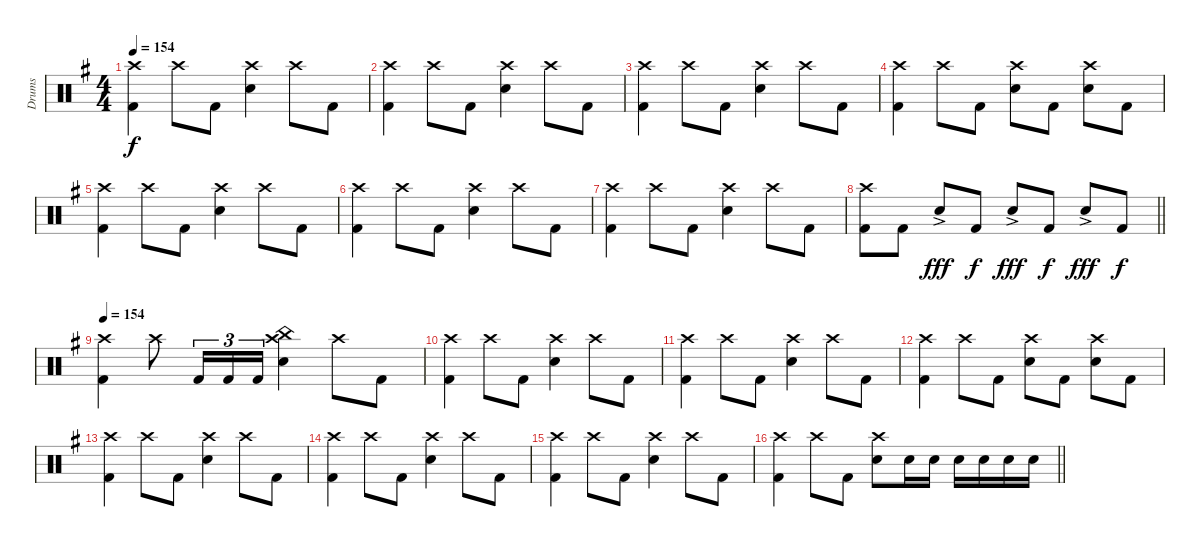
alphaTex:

\track ("Drums" "Drums") {instrument percussion}
\staff {score}
\articulation defaults
\ts (4 4)
\tempo 154
\clef neutral
\ks eminor
("Crash high (hit)" "Kick (hit) 2").4{dy f} "Crash high (hit)".8 "Kick (hit) 2".8 ("Crash high (hit)" "Snare (hit) 2").4 "Crash high (hit)".8 "Kick (hit) 2".8 |
("Crash high (hit)" "Kick (hit) 2").4 "Crash high (hit)".8 "Kick (hit) 2".8 ("Crash high (hit)" "Snare (hit) 2").4 "Crash high (hit)".8 "Kick (hit) 2".8 |
("Crash high (hit)" "Kick (hit) 2").4 "Crash high (hit)".8 "Kick (hit) 2".8 ("Crash high (hit)" "Snare (hit) 2").4 "Crash high (hit)".8 "Kick (hit) 2".8 |
("Crash high (hit)" "Kick (hit) 2").4 "Crash high (hit)".8 "Kick (hit) 2".8 ("Crash high (hit)" "Snare (hit) 2").8 "Kick (hit) 2".8 ("Crash high (hit)" "Snare (hit) 2").8 "Kick (hit) 2".8 |
("Crash high (hit)" "Kick (hit) 2").4 "Crash high (hit)".8 "Kick (hit) 2".8 ("Crash high (hit)" "Snare (hit) 2").4 "Crash high (hit)".8 "Kick (hit) 2".8 |
("Crash high (hit)" "Kick (hit) 2").4 "Crash high (hit)".8 "Kick (hit) 2".8 ("Crash high (hit)" "Snare (hit) 2").4 "Crash high (hit)".8 "Kick (hit) 2".8 |
("Crash high (hit)" "Kick (hit) 2").4 "Crash high (hit)".8 "Kick (hit) 2".8 ("Crash high (hit)" "Snare (hit) 2").4 "Crash high (hit)".8 "Kick (hit) 2".8 |
\barLineRight lightlight
("Crash high (hit)" "Kick (hit) 2").8 "Kick (hit) 2".8 "Snare (hit) 2"{ac}.8{dy fff} "Kick (hit) 2".8{dy f} "Snare (hit) 2"{ac}.8{dy fff} "Kick (hit) 2".8{dy f} "Snare (hit) 2"{ac}.8{dy fff} "Kick (hit) 2".8{dy f} |
\tempo 154
("Crash high (hit)" "Kick (hit) 2").4 "Crash high (hit)".8 "Kick (hit) 2".16{tu (3 2)} "Kick (hit) 2".16{tu (3 2)} "Kick (hit) 2".16{tu (3 2)} ("China (hit)" "Crash high (hit)" "Snare (hit) 2").4 "Crash high (hit)".8 "Kick (hit) 2".8 |
("Crash high (hit)" "Kick (hit) 2").4 "Crash high (hit)".8 "Kick (hit) 2".8 ("Crash high (hit)" "Snare (hit) 2").4 "Crash high (hit)".8 "Kick (hit) 2".8 |
("Crash high (hit)" "Kick (hit) 2").4 "Crash high (hit)".8 "Kick (hit) 2".8 ("Crash high (hit)" "Snare (hit) 2").4 "Crash high (hit)".8 "Kick (hit) 2".8 |
("Crash high (hit)" "Kick (hit) 2").4 "Crash high (hit)".8 "Kick (hit) 2".8 ("Crash high (hit)" "Snare (hit) 2").8 "Kick (hit) 2".8 ("Crash high (hit)" "Snare (hit) 2").8 "Kick (hit) 2".8 |
("Crash high (hit)" "Kick (hit) 2").4 "Crash high (hit)".8 "Kick (hit) 2".8 ("Crash high (hit)" "Snare (hit) 2").4 "Crash high (hit)".8 "Kick (hit) 2".8 |
("Crash high (hit)" "Kick (hit) 2").4 "Crash high (hit)".8 "Kick (hit) 2".8 ("Crash high (hit)" "Snare (hit) 2").4 "Crash high (hit)".8 "Kick (hit) 2".8 |
("Crash high (hit)" "Kick (hit) 2").4 "Crash high (hit)".8 "Kick (hit) 2".8 ("Crash high (hit)" "Snare (hit) 2").4 "Crash high (hit)".8 "Kick (hit) 2".8 |
\barLineRight lightlight
("Crash high (hit)" "Kick (hit) 2").4 "Crash high (hit)".8 "Kick (hit) 2".8 ("Crash high (hit)" "Snare (hit) 2").8 "Snare (hit) 2".16 "Snare (hit) 2".16 "Snare (hit) 2".16 "Snare (hit) 2".16 "Snare (hit) 2".16 "Snare (hit) 2".16
